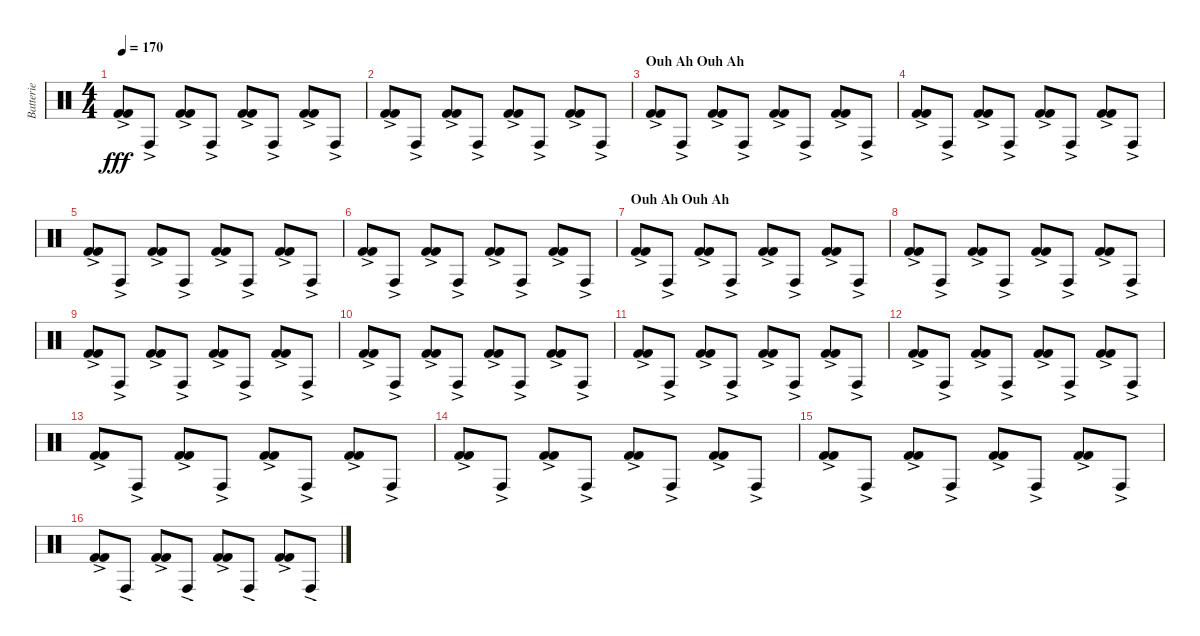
\track ("Batterie" "Batterie") {instrument percussion}
\staff {score}
\articulation defaults
\ts (4 4)
\tempo 170
\clef neutral
\ks c
("Kick (hit) 2"{ac} "Kick (hit) 2"{ac}).8{dy fff} "Conga high (hit)"{ac}.8 ("Kick (hit) 2"{ac} "Kick (hit) 2"{ac}).8 "Conga high (hit)"{ac}.8 ("Kick (hit) 2"{ac} "Kick (hit) 2"{ac}).8 "Conga high (hit)"{ac}.8 ("Kick (hit) 2"{ac} "Kick (hit) 2"{ac}).8 "Conga high (hit)"{ac}.8 |
("Kick (hit) 2"{ac} "Kick (hit) 2"{ac}).8 "Conga high (hit)"{ac}.8 ("Kick (hit) 2"{ac} "Kick (hit) 2"{ac}).8 "Conga high (hit)"{ac}.8 ("Kick (hit) 2"{ac} "Kick (hit) 2"{ac}).8 "Conga high (hit)"{ac}.8 ("Kick (hit) 2"{ac} "Kick (hit) 2"{ac}).8 "Conga high (hit)"{ac}.8 |
\section ("" "Ouh Ah Ouh Ah")
("Kick (hit) 2"{ac} "Kick (hit) 2"{ac}).8 "Conga high (hit)"{ac}.8 ("Kick (hit) 2"{ac} "Kick (hit) 2"{ac}).8 "Conga high (hit)"{ac}.8 ("Kick (hit) 2"{ac} "Kick (hit) 2"{ac}).8 "Conga high (hit)"{ac}.8 ("Kick (hit) 2"{ac} "Kick (hit) 2"{ac}).8 "Conga high (hit)"{ac}.8 |
("Kick (hit) 2"{ac} "Kick (hit) 2"{ac}).8 "Conga high (hit)"{ac}.8 ("Kick (hit) 2"{ac} "Kick (hit) 2"{ac}).8 "Conga high (hit)"{ac}.8 ("Kick (hit) 2"{ac} "Kick (hit) 2"{ac}).8 "Conga high (hit)"{ac}.8 ("Kick (hit) 2"{ac} "Kick (hit) 2"{ac}).8 "Conga high (hit)"{ac}.8 |
("Kick (hit) 2"{ac} "Kick (hit) 2"{ac}).8 "Conga high (hit)"{ac}.8 ("Kick (hit) 2"{ac} "Kick (hit) 2"{ac}).8 "Conga high (hit)"{ac}.8 ("Kick (hit) 2"{ac} "Kick (hit) 2"{ac}).8 "Conga high (hit)"{ac}.8 ("Kick (hit) 2"{ac} "Kick (hit) 2"{ac}).8 "Conga high (hit)"{ac}.8 |
("Kick (hit) 2"{ac} "Kick (hit) 2"{ac}).8 "Conga high (hit)"{ac}.8 ("Kick (hit) 2"{ac} "Kick (hit) 2"{ac}).8 "Conga high (hit)"{ac}.8 ("Kick (hit) 2"{ac} "Kick (hit) 2"{ac}).8 "Conga high (hit)"{ac}.8 ("Kick (hit) 2"{ac} "Kick (hit) 2"{ac}).8 "Conga high (hit)"{ac}.8 |
\section ("" "Ouh Ah Ouh Ah")
("Kick (hit) 2"{ac} "Kick (hit) 2"{ac}).8 "Conga high (hit)"{ac}.8 ("Kick (hit) 2"{ac} "Kick (hit) 2"{ac}).8 "Conga high (hit)"{ac}.8 ("Kick (hit) 2"{ac} "Kick (hit) 2"{ac}).8 "Conga high (hit)"{ac}.8 ("Kick (hit) 2"{ac} "Kick (hit) 2"{ac}).8 "Conga high (hit)"{ac}.8 |
("Kick (hit) 2"{ac} "Kick (hit) 2"{ac}).8 "Conga high (hit)"{ac}.8 ("Kick (hit) 2"{ac} "Kick (hit) 2"{ac}).8 "Conga high (hit)"{ac}.8 ("Kick (hit) 2"{ac} "Kick (hit) 2"{ac}).8 "Conga high (hit)"{ac}.8 ("Kick (hit) 2"{ac} "Kick (hit) 2"{ac}).8 "Conga high (hit)"{ac}.8 |
("Kick (hit) 2"{ac} "Kick (hit) 2"{ac}).8 "Conga high (hit)"{ac}.8 ("Kick (hit) 2"{ac} "Kick (hit) 2"{ac}).8 "Conga high (hit)"{ac}.8 ("Kick (hit) 2"{ac} "Kick (hit) 2"{ac}).8 "Conga high (hit)"{ac}.8 ("Kick (hit) 2"{ac} "Kick (hit) 2"{ac}).8 "Conga high (hit)"{ac}.8 |
("Kick (hit) 2"{ac} "Kick (hit) 2"{ac}).8 "Conga high (hit)"{ac}.8 ("Kick (hit) 2"{ac} "Kick (hit) 2"{ac}).8 "Conga high (hit)"{ac}.8 ("Kick (hit) 2"{ac} "Kick (hit) 2"{ac}).8 "Conga high (hit)"{ac}.8 ("Kick (hit) 2"{ac} "Kick (hit) 2"{ac}).8 "Conga high (hit)"{ac}.8 |
("Kick (hit) 2"{ac} "Kick (hit) 2"{ac}).8 "Conga high (hit)"{ac}.8 ("Kick (hit) 2"{ac} "Kick (hit) 2"{ac}).8 "Conga high (hit)"{ac}.8 ("Kick (hit) 2"{ac} "Kick (hit) 2"{ac}).8 "Conga high (hit)"{ac}.8 ("Kick (hit) 2"{ac} "Kick (hit) 2"{ac}).8 "Conga high (hit)"{ac}.8 |
("Kick (hit) 2"{ac} "Kick (hit) 2"{ac}).8 "Conga high (hit)"{ac}.8 ("Kick (hit) 2"{ac} "Kick (hit) 2"{ac}).8 "Conga high (hit)"{ac}.8 ("Kick (hit) 2"{ac} "Kick (hit) 2"{ac}).8 "Conga high (hit)"{ac}.8 ("Kick (hit) 2"{ac} "Kick (hit) 2"{ac}).8 "Conga high (hit)"{ac}.8 |
("Kick (hit) 2"{ac} "Kick (hit) 2"{ac}).8 "Conga high (hit)"{ac}.8 ("Kick (hit) 2"{ac} "Kick (hit) 2"{ac}).8 "Conga high (hit)"{ac}.8 ("Kick (hit) 2"{ac} "Kick (hit) 2"{ac}).8 "Conga high (hit)"{ac}.8 ("Kick (hit) 2"{ac} "Kick (hit) 2"{ac}).8 "Conga high (hit)"{ac}.8 |
("Kick (hit) 2"{ac} "Kick (hit) 2"{ac}).8 "Conga high (hit)"{ac}.8 ("Kick (hit) 2"{ac} "Kick (hit) 2"{ac}).8 "Conga high (hit)"{ac}.8 ("Kick (hit) 2"{ac} "Kick (hit) 2"{ac}).8 "Conga high (hit)"{ac}.8 ("Kick (hit) 2"{ac} "Kick (hit) 2"{ac}).8 "Conga high (hit)"{ac}.8 |
("Kick (hit) 2"{ac} "Kick (hit) 2"{ac}).8 "Conga high (hit)"{ac}.8 ("Kick (hit) 2"{ac} "Kick (hit) 2"{ac}).8 "Conga high (hit)"{ac}.8 ("Kick (hit) 2"{ac} "Kick (hit) 2"{ac}).8 "Conga high (hit)"{ac}.8 ("Kick (hit) 2"{ac} "Kick (hit) 2"{ac}).8 "Conga high (hit)"{ac}.8 |
("Kick (hit) 2"{ac} "Kick (hit) 2"{ac}).8 "Conga high (hit)"{ac}.8 ("Kick (hit) 2"{ac} "Kick (hit) 2"{ac}).8 "Conga high (hit)"{ac}.8 ("Kick (hit) 2"{ac} "Kick (hit) 2"{ac}).8 "Conga high (hit)"{ac}.8 ("Kick (hit) 2"{ac} "Kick (hit) 2"{ac}).8 "Conga high (hit)"{ac}.8
